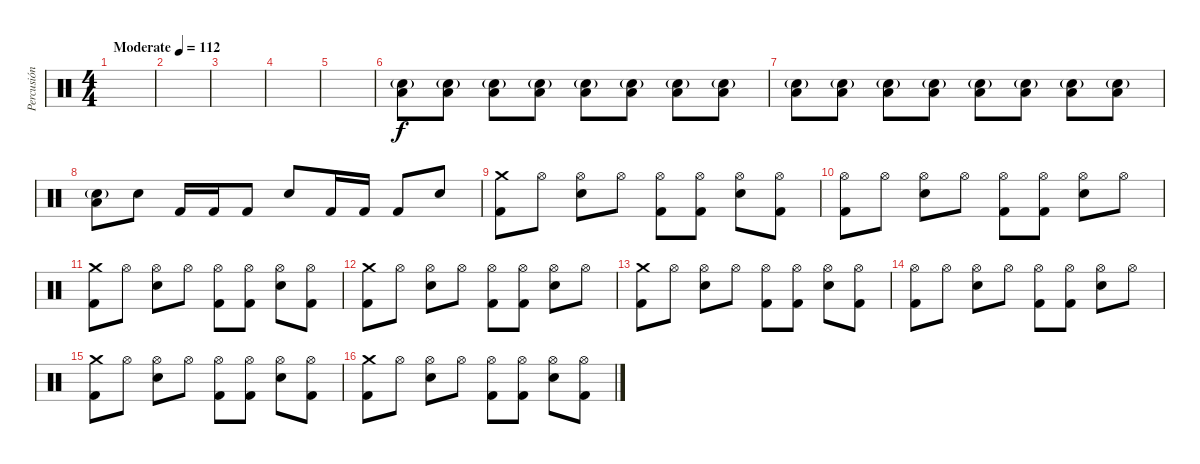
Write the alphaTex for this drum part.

\track ("Percusión" "Percusión") {instrument percussion}
\staff {score}
\articulation defaults
\ts (4 4)
\tempo (112 "Moderate")
\clef neutral
\ks c
|
|
|
|
|
("Electric Snare (hit)"{g} "Low Floor Tom (hit)").8 ("Electric Snare (hit)"{g} "Low Floor Tom (hit)").8 ("Electric Snare (hit)"{g} "Low Floor Tom (hit)").8 ("Electric Snare (hit)"{g} "Low Floor Tom (hit)").8 ("Electric Snare (hit)"{g} "Low Floor Tom (hit)").8 ("Electric Snare (hit)"{g} "Low Floor Tom (hit)").8 ("Electric Snare (hit)"{g} "Low Floor Tom (hit)").8 ("Electric Snare (hit)"{g} "Low Floor Tom (hit)").8 |
("Electric Snare (hit)"{g} "Low Floor Tom (hit)").8{volume 14} ("Electric Snare (hit)"{g} "Low Floor Tom (hit)").8 ("Electric Snare (hit)"{g} "Low Floor Tom (hit)").8 ("Electric Snare (hit)"{g} "Low Floor Tom (hit)").8 ("Electric Snare (hit)"{g} "Low Floor Tom (hit)").8 ("Electric Snare (hit)"{g} "Low Floor Tom (hit)").8 ("Electric Snare (hit)"{g} "Low Floor Tom (hit)").8 ("Electric Snare (hit)"{g} "Low Floor Tom (hit)").8 |
("Electric Snare (hit)"{g} "Low Floor Tom (hit)").8 "Electric Snare (hit)".8{dy f} "Kick (hit) 2".16 "Kick (hit) 2".16 "Kick (hit) 2".8 "Electric Snare (hit)".8 "Kick (hit) 2".16 "Kick (hit) 2".16 "Kick (hit) 2".8 "Electric Snare (hit)".8 |
("Crash medium (hit)" "Kick (hit) 2").8 "Hi-Hat (open)".8 ("Hi-Hat (open)" "Electric Snare (hit)").8 "Hi-Hat (open)".8 ("Hi-Hat (open)" "Kick (hit) 2").8 ("Hi-Hat (open)" "Kick (hit) 2").8 ("Hi-Hat (open)" "Electric Snare (hit)").8 ("Hi-Hat (open)" "Kick (hit) 2").8 |
("Hi-Hat (open)" "Kick (hit) 2").8 "Hi-Hat (open)".8 ("Hi-Hat (open)" "Electric Snare (hit)").8 "Hi-Hat (open)".8 ("Hi-Hat (open)" "Kick (hit) 2").8 ("Hi-Hat (open)" "Kick (hit) 2").8 ("Hi-Hat (open)" "Electric Snare (hit)").8 "Hi-Hat (open)".8 |
("Crash medium (hit)" "Kick (hit) 2").8 "Hi-Hat (open)".8 ("Hi-Hat (open)" "Electric Snare (hit)").8 "Hi-Hat (open)".8 ("Hi-Hat (open)" "Kick (hit) 2").8 ("Hi-Hat (open)" "Kick (hit) 2").8 ("Hi-Hat (open)" "Electric Snare (hit)").8 ("Hi-Hat (open)" "Kick (hit) 2").8 |
("Crash medium (hit)" "Kick (hit) 2").8 "Hi-Hat (open)".8 ("Hi-Hat (open)" "Electric Snare (hit)").8 "Hi-Hat (open)".8 ("Hi-Hat (open)" "Kick (hit) 2").8 ("Hi-Hat (open)" "Kick (hit) 2").8 ("Hi-Hat (open)" "Electric Snare (hit)").8 "Hi-Hat (open)".8 |
("Crash medium (hit)" "Kick (hit) 2").8 "Hi-Hat (open)".8 ("Hi-Hat (open)" "Electric Snare (hit)").8 "Hi-Hat (open)".8 ("Hi-Hat (open)" "Kick (hit) 2").8 ("Hi-Hat (open)" "Kick (hit) 2").8 ("Hi-Hat (open)" "Electric Snare (hit)").8 ("Hi-Hat (open)" "Kick (hit) 2").8 |
("Hi-Hat (open)" "Kick (hit) 2").8 "Hi-Hat (open)".8 ("Hi-Hat (open)" "Electric Snare (hit)").8 "Hi-Hat (open)".8 ("Hi-Hat (open)" "Kick (hit) 2").8 ("Hi-Hat (open)" "Kick (hit) 2").8 ("Hi-Hat (open)" "Electric Snare (hit)").8 "Hi-Hat (open)".8 |
("Crash medium (hit)" "Kick (hit) 2").8 "Hi-Hat (open)".8 ("Hi-Hat (open)" "Electric Snare (hit)").8 "Hi-Hat (open)".8 ("Hi-Hat (open)" "Kick (hit) 2").8 ("Hi-Hat (open)" "Kick (hit) 2").8 ("Hi-Hat (open)" "Electric Snare (hit)").8 ("Hi-Hat (open)" "Kick (hit) 2").8 |
("Crash medium (hit)" "Kick (hit) 2").8 "Hi-Hat (open)".8 ("Hi-Hat (open)" "Electric Snare (hit)").8 "Hi-Hat (open)".8 ("Hi-Hat (open)" "Kick (hit) 2").8 ("Hi-Hat (open)" "Kick (hit) 2").8 ("Hi-Hat (open)" "Electric Snare (hit)").8 ("Hi-Hat (open)" "Kick (hit) 2").8
